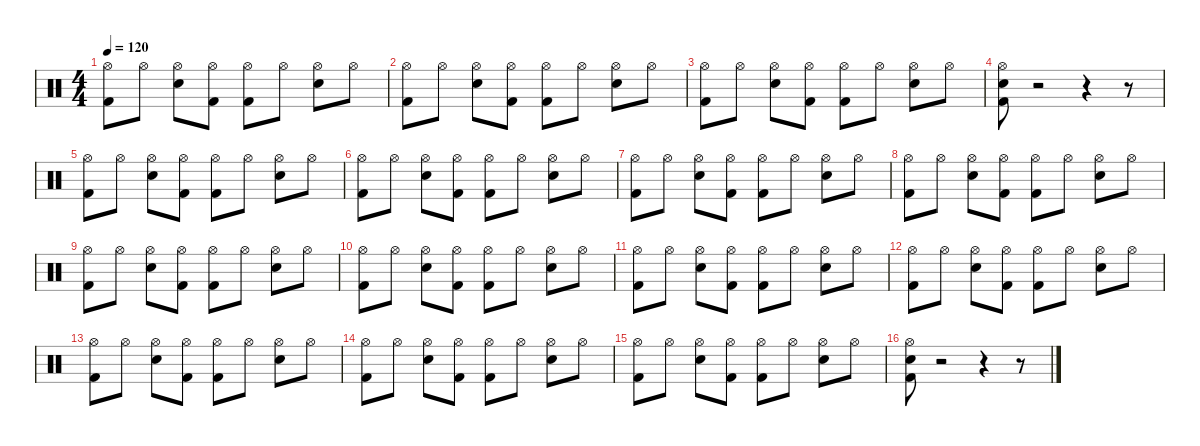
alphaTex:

\defaultSystemsLayout 4
\hideDynamics
\bracketExtendMode nobrackets
\singleTrackTrackNamePolicy hidden
\multiTrackTrackNamePolicy hidden
\firstSystemTrackNameMode fullname
\firstSystemTrackNameOrientation horizontal
\otherSystemsTrackNameOrientation horizontal
\track ("Percussion" "drm.") {instrument percussion}
\staff {score}
\articulation defaults
\ts (4 4)
\tempo 120
\clef neutral
\ks c
("Hi-Hat (open)" "Kick (hit) 2").8{dy f beam Down} "Hi-Hat (open)".8{beam Down} ("Hi-Hat (open)" "Snare (hit) 2").8{beam Down} ("Hi-Hat (open)" "Kick (hit) 2").8{beam Down} ("Hi-Hat (open)" "Kick (hit) 2").8{beam Down} "Hi-Hat (open)".8{beam Down} ("Hi-Hat (open)" "Snare (hit) 2").8{beam Down} "Hi-Hat (open)".8{beam Down} |
("Hi-Hat (open)" "Kick (hit) 2").8{beam Down} "Hi-Hat (open)".8{beam Down} ("Hi-Hat (open)" "Snare (hit) 2").8{beam Down} ("Hi-Hat (open)" "Kick (hit) 2").8{beam Down} ("Hi-Hat (open)" "Kick (hit) 2").8{beam Down} "Hi-Hat (open)".8{beam Down} ("Hi-Hat (open)" "Snare (hit) 2").8{beam Down} "Hi-Hat (open)".8{beam Down} |
("Hi-Hat (open)" "Kick (hit) 2").8{beam Down} "Hi-Hat (open)".8{beam Down} ("Hi-Hat (open)" "Snare (hit) 2").8{beam Down} ("Hi-Hat (open)" "Kick (hit) 2").8{beam Down} ("Hi-Hat (open)" "Kick (hit) 2").8{beam Down} "Hi-Hat (open)".8{beam Down} ("Hi-Hat (open)" "Snare (hit) 2").8{beam Down} "Hi-Hat (open)".8{beam Down} |
("Hi-Hat (open)" "Snare (hit) 2" "Kick (hit) 2").8{beam Down} r.2{beam Down} r.4{beam Down} r.8{beam Down} |
("Hi-Hat (open)" "Kick (hit) 2").8{beam Down} "Hi-Hat (open)".8{beam Down} ("Hi-Hat (open)" "Snare (hit) 2").8{beam Down} ("Hi-Hat (open)" "Kick (hit) 2").8{beam Down} ("Hi-Hat (open)" "Kick (hit) 2").8{beam Down} "Hi-Hat (open)".8{beam Down} ("Hi-Hat (open)" "Snare (hit) 2").8{beam Down} "Hi-Hat (open)".8{beam Down} |
("Hi-Hat (open)" "Kick (hit) 2").8{beam Down} "Hi-Hat (open)".8{beam Down} ("Hi-Hat (open)" "Snare (hit) 2").8{beam Down} ("Hi-Hat (open)" "Kick (hit) 2").8{beam Down} ("Hi-Hat (open)" "Kick (hit) 2").8{beam Down} "Hi-Hat (open)".8{beam Down} ("Hi-Hat (open)" "Snare (hit) 2").8{beam Down} "Hi-Hat (open)".8{beam Down} |
("Hi-Hat (open)" "Kick (hit) 2").8{beam Down} "Hi-Hat (open)".8{beam Down} ("Hi-Hat (open)" "Snare (hit) 2").8{beam Down} ("Hi-Hat (open)" "Kick (hit) 2").8{beam Down} ("Hi-Hat (open)" "Kick (hit) 2").8{beam Down} "Hi-Hat (open)".8{beam Down} ("Hi-Hat (open)" "Snare (hit) 2").8{beam Down} "Hi-Hat (open)".8{beam Down} |
("Hi-Hat (open)" "Kick (hit) 2").8{beam Down} "Hi-Hat (open)".8{beam Down} ("Hi-Hat (open)" "Snare (hit) 2").8{beam Down} ("Hi-Hat (open)" "Kick (hit) 2").8{beam Down} ("Hi-Hat (open)" "Kick (hit) 2").8{beam Down} "Hi-Hat (open)".8{beam Down} ("Hi-Hat (open)" "Snare (hit) 2").8{beam Down} "Hi-Hat (open)".8{beam Down} |
("Hi-Hat (open)" "Kick (hit) 2").8{beam Down} "Hi-Hat (open)".8{beam Down} ("Hi-Hat (open)" "Snare (hit) 2").8{beam Down} ("Hi-Hat (open)" "Kick (hit) 2").8{beam Down} ("Hi-Hat (open)" "Kick (hit) 2").8{beam Down} "Hi-Hat (open)".8{beam Down} ("Hi-Hat (open)" "Snare (hit) 2").8{beam Down} "Hi-Hat (open)".8{beam Down} |
("Hi-Hat (open)" "Kick (hit) 2").8{beam Down} "Hi-Hat (open)".8{beam Down} ("Hi-Hat (open)" "Snare (hit) 2").8{beam Down} ("Hi-Hat (open)" "Kick (hit) 2").8{beam Down} ("Hi-Hat (open)" "Kick (hit) 2").8{beam Down} "Hi-Hat (open)".8{beam Down} ("Hi-Hat (open)" "Snare (hit) 2").8{beam Down} "Hi-Hat (open)".8{beam Down} |
("Hi-Hat (open)" "Kick (hit) 2").8{beam Down} "Hi-Hat (open)".8{beam Down} ("Hi-Hat (open)" "Snare (hit) 2").8{beam Down} ("Hi-Hat (open)" "Kick (hit) 2").8{beam Down} ("Hi-Hat (open)" "Kick (hit) 2").8{beam Down} "Hi-Hat (open)".8{beam Down} ("Hi-Hat (open)" "Snare (hit) 2").8{beam Down} "Hi-Hat (open)".8{beam Down} |
("Hi-Hat (open)" "Kick (hit) 2").8{beam Down} "Hi-Hat (open)".8{beam Down} ("Hi-Hat (open)" "Snare (hit) 2").8{beam Down} ("Hi-Hat (open)" "Kick (hit) 2").8{beam Down} ("Hi-Hat (open)" "Kick (hit) 2").8{beam Down} "Hi-Hat (open)".8{beam Down} ("Hi-Hat (open)" "Snare (hit) 2").8{beam Down} "Hi-Hat (open)".8{beam Down} |
("Hi-Hat (open)" "Kick (hit) 2").8{beam Down} "Hi-Hat (open)".8{beam Down} ("Hi-Hat (open)" "Snare (hit) 2").8{beam Down} ("Hi-Hat (open)" "Kick (hit) 2").8{beam Down} ("Hi-Hat (open)" "Kick (hit) 2").8{beam Down} "Hi-Hat (open)".8{beam Down} ("Hi-Hat (open)" "Snare (hit) 2").8{beam Down} "Hi-Hat (open)".8{beam Down} |
("Hi-Hat (open)" "Kick (hit) 2").8{beam Down} "Hi-Hat (open)".8{beam Down} ("Hi-Hat (open)" "Snare (hit) 2").8{beam Down} ("Hi-Hat (open)" "Kick (hit) 2").8{beam Down} ("Hi-Hat (open)" "Kick (hit) 2").8{beam Down} "Hi-Hat (open)".8{beam Down} ("Hi-Hat (open)" "Snare (hit) 2").8{beam Down} "Hi-Hat (open)".8{beam Down} |
("Hi-Hat (open)" "Kick (hit) 2").8{beam Down} "Hi-Hat (open)".8{beam Down} ("Hi-Hat (open)" "Snare (hit) 2").8{beam Down} ("Hi-Hat (open)" "Kick (hit) 2").8{beam Down} ("Hi-Hat (open)" "Kick (hit) 2").8{beam Down} "Hi-Hat (open)".8{beam Down} ("Hi-Hat (open)" "Snare (hit) 2").8{beam Down} "Hi-Hat (open)".8{beam Down} |
("Hi-Hat (open)" "Snare (hit) 2" "Kick (hit) 2").8{beam Down} r.2{beam Down} r.4{beam Down} r.8{beam Down}
